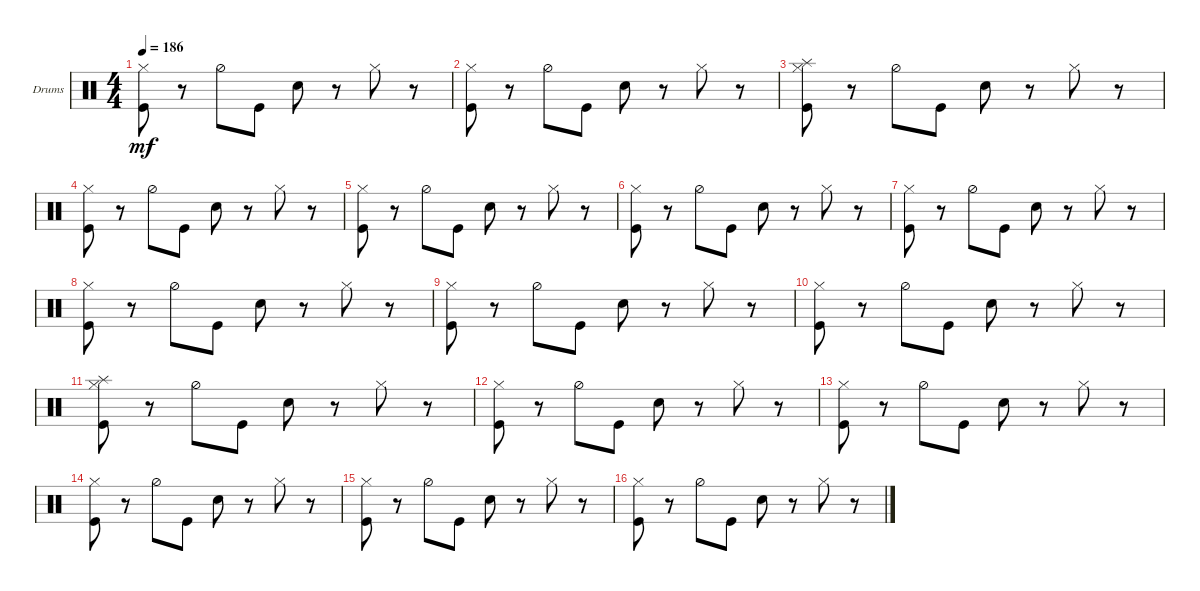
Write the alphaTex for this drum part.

\defaultSystemsLayout 4
\bracketExtendMode groupsimilarinstruments
\firstSystemTrackNameOrientation horizontal
\otherSystemsTrackNameOrientation horizontal
\track ("Drumkit" "Drums") {instrument percussion}
\staff {score}
\articulation defaults
\ts (4 4)
\tempo 186
\clef neutral
\scale
0.333333
\ks c
("Hi-Hat (closed)" "Kick (hit)").8{dy mf} r.8 "Hi-Hat (half)".8 "Kick (hit)".8 "Snare (hit) 2".8 r.8 "Hi-Hat (closed)".8 r.8 |
\scale
0.333333 ("Hi-Hat (closed)" "Kick (hit)").8 r.8 "Hi-Hat (half)".8 "Kick (hit)".8 "Snare (hit) 2".8 r.8 "Hi-Hat (closed)".8 r.8 |
\scale
0.333333 ("Hi-Hat (closed)" "Kick (hit)" "Splash (hit)").8 r.8 "Hi-Hat (half)".8 "Kick (hit)".8 "Snare (hit) 2".8 r.8 "Hi-Hat (closed)".8 r.8 |
\scale
0.333333 ("Hi-Hat (closed)" "Kick (hit)").8 r.8 "Hi-Hat (half)".8 "Kick (hit)".8 "Snare (hit) 2".8 r.8 "Hi-Hat (closed)".8 r.8 |
\scale
0.333333 ("Hi-Hat (closed)" "Kick (hit)").8 r.8 "Hi-Hat (half)".8 "Kick (hit)".8 "Snare (hit) 2".8 r.8 "Hi-Hat (closed)".8 r.8 |
\scale
0.333333 ("Hi-Hat (closed)" "Kick (hit)").8 r.8 "Hi-Hat (half)".8 "Kick (hit)".8 "Snare (hit) 2".8 r.8 "Hi-Hat (closed)".8 r.8 |
\scale
0.333333 ("Hi-Hat (closed)" "Kick (hit)").8 r.8 "Hi-Hat (half)".8 "Kick (hit)".8 "Snare (hit) 2".8 r.8 "Hi-Hat (closed)".8 r.8 |
\scale
0.333333 ("Hi-Hat (closed)" "Kick (hit)").8 r.8 "Hi-Hat (half)".8 "Kick (hit)".8 "Snare (hit) 2".8 r.8 "Hi-Hat (closed)".8 r.8 |
\scale
0.333333 ("Hi-Hat (closed)" "Kick (hit)").8 r.8 "Hi-Hat (half)".8 "Kick (hit)".8 "Snare (hit) 2".8 r.8 "Hi-Hat (closed)".8 r.8 |
\scale
0.333333 ("Hi-Hat (closed)" "Kick (hit)").8 r.8 "Hi-Hat (half)".8 "Kick (hit)".8 "Snare (hit) 2".8 r.8 "Hi-Hat (closed)".8 r.8 |
\scale
0.333333 ("Hi-Hat (closed)" "Kick (hit)" "Splash (hit)").8 r.8 "Hi-Hat (half)".8 "Kick (hit)".8 "Snare (hit) 2".8 r.8 "Hi-Hat (closed)".8 r.8 |
\scale
0.333333 ("Hi-Hat (closed)" "Kick (hit)").8 r.8 "Hi-Hat (half)".8 "Kick (hit)".8 "Snare (hit) 2".8 r.8 "Hi-Hat (closed)".8 r.8 |
\scale
0.333333 ("Hi-Hat (closed)" "Kick (hit)").8 r.8 "Hi-Hat (half)".8 "Kick (hit)".8 "Snare (hit) 2".8 r.8 "Hi-Hat (closed)".8 r.8 |
\scale
0.333333 ("Hi-Hat (closed)" "Kick (hit)").8 r.8 "Hi-Hat (half)".8 "Kick (hit)".8 "Snare (hit) 2".8 r.8 "Hi-Hat (closed)".8 r.8 |
\scale
0.333333 ("Hi-Hat (closed)" "Kick (hit)").8 r.8 "Hi-Hat (half)".8 "Kick (hit)".8 "Snare (hit) 2".8 r.8 "Hi-Hat (closed)".8 r.8 |
\scale
0.333333 ("Hi-Hat (closed)" "Kick (hit)").8 r.8 "Hi-Hat (half)".8 "Kick (hit)".8 "Snare (hit) 2".8 r.8 "Hi-Hat (closed)".8 r.8
